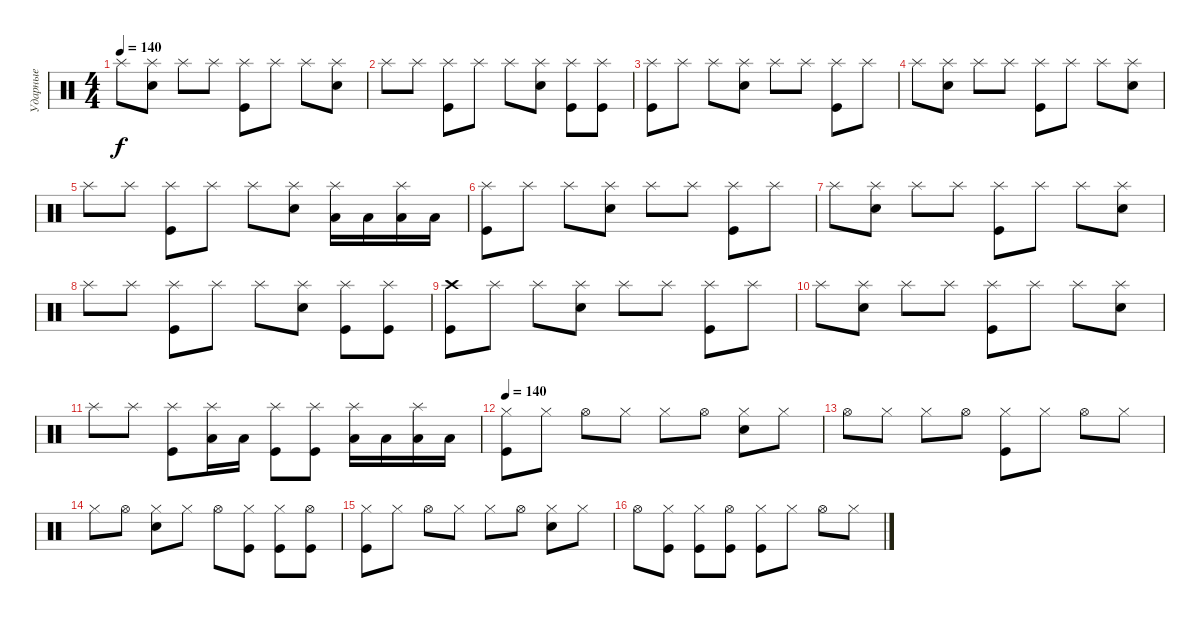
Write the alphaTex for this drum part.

\track ("Ударные" "Ударные") {instrument percussion}
\staff {score}
\articulation defaults
\ts (4 4)
\tempo 140
\clef neutral
\ks c "Splash (hit)".8{dy f}
("Snare (hit) 2" "Splash (hit)").8 "Splash (hit)".8 "Splash (hit)".8 ("Kick (hit)" "Splash (hit)").8 "Splash (hit)".8 "Splash (hit)".8 ("Snare (hit) 2" "Splash (hit)").8 |
"Splash (hit)".8 "Splash (hit)".8 ("Kick (hit)" "Splash (hit)").8 "Splash (hit)".8 "Splash (hit)".8 ("Snare (hit) 2" "Splash (hit)").8 ("Kick (hit)" "Splash (hit)").8 ("Kick (hit)" "Splash (hit)").8 |
("Kick (hit)" "Splash (hit)").8 "Splash (hit)".8 "Splash (hit)".8 ("Snare (hit) 2" "Splash (hit)").8 "Splash (hit)".8 "Splash (hit)".8 ("Kick (hit)" "Splash (hit)").8 "Splash (hit)".8 |
"Splash (hit)".8 ("Snare (hit) 2" "Splash (hit)").8 "Splash (hit)".8 "Splash (hit)".8 ("Kick (hit)" "Splash (hit)").8 "Splash (hit)".8 "Splash (hit)".8 ("Snare (hit) 2" "Splash (hit)").8 |
"Splash (hit)".8 "Splash (hit)".8 ("Kick (hit)" "Splash (hit)").8 "Splash (hit)".8 "Splash (hit)".8 ("Snare (hit) 2" "Splash (hit)").8 ("Low Tom (hit)" "Splash (hit)").16 "Low Tom (hit)".16 ("Low Tom (hit)" "Splash (hit)").16 "Low Tom (hit)".16 |
("Kick (hit)" "Splash (hit)").8 "Splash (hit)".8 "Splash (hit)".8 ("Snare (hit) 2" "Splash (hit)").8 "Splash (hit)".8 "Splash (hit)".8 ("Kick (hit)" "Splash (hit)").8 "Splash (hit)".8 |
"Splash (hit)".8 ("Snare (hit) 2" "Splash (hit)").8 "Splash (hit)".8 "Splash (hit)".8 ("Kick (hit)" "Splash (hit)").8 "Splash (hit)".8 "Splash (hit)".8 ("Snare (hit) 2" "Splash (hit)").8 |
"Splash (hit)".8 "Splash (hit)".8 ("Kick (hit)" "Splash (hit)").8 "Splash (hit)".8 "Splash (hit)".8 ("Snare (hit) 2" "Splash (hit)").8 ("Kick (hit)" "Splash (hit)").8 ("Kick (hit)" "Splash (hit)").8 |
("Kick (hit)" "Crash high (hit)").8 "Splash (hit)".8 "Splash (hit)".8 ("Snare (hit) 2" "Splash (hit)").8 "Splash (hit)".8 "Splash (hit)".8 ("Kick (hit)" "Splash (hit)").8 "Splash (hit)".8 |
"Splash (hit)".8 ("Snare (hit) 2" "Splash (hit)").8 "Splash (hit)".8 "Splash (hit)".8 ("Kick (hit)" "Splash (hit)").8 "Splash (hit)".8 "Splash (hit)".8 ("Snare (hit) 2" "Splash (hit)").8 |
"Splash (hit)".8 "Splash (hit)".8 ("Kick (hit)" "Splash (hit)").8 ("Low Tom (hit)" "Splash (hit)").16 "Low Tom (hit)".16 ("Kick (hit)" "Splash (hit)").8 ("Kick (hit)" "Splash (hit)").8 ("Low Tom (hit)" "Splash (hit)").16 "Low Tom (hit)".16 ("Low Tom (hit)" "Splash (hit)").16 "Low Tom (hit)".16 |
\tempo 140
("Kick (hit)" "Hi-Hat (closed)").8 "Hi-Hat (closed)".8 "Hi-Hat (open)".8 "Hi-Hat (closed)".8 "Hi-Hat (closed)".8 "Hi-Hat (open)".8 ("Snare (hit) 2" "Hi-Hat (closed)").8 "Hi-Hat (closed)".8 |
"Hi-Hat (open)".8 "Hi-Hat (closed)".8 "Hi-Hat (closed)".8 "Hi-Hat (open)".8 ("Kick (hit)" "Hi-Hat (closed)").8 "Hi-Hat (closed)".8 "Hi-Hat (open)".8 "Hi-Hat (closed)".8 |
"Hi-Hat (closed)".8 "Hi-Hat (open)".8 ("Snare (hit) 2" "Hi-Hat (closed)").8 "Hi-Hat (closed)".8 "Hi-Hat (open)".8 ("Kick (hit)" "Hi-Hat (closed)").8 ("Kick (hit)" "Hi-Hat (closed)").8 ("Kick (hit)" "Hi-Hat (open)").8 |
("Kick (hit)" "Hi-Hat (closed)").8 "Hi-Hat (closed)".8 "Hi-Hat (open)".8 "Hi-Hat (closed)".8 "Hi-Hat (closed)".8 "Hi-Hat (open)".8 ("Snare (hit) 2" "Hi-Hat (closed)").8 "Hi-Hat (closed)".8 |
"Hi-Hat (open)".8 ("Kick (hit)" "Hi-Hat (closed)").8 ("Kick (hit)" "Hi-Hat (closed)").8 ("Kick (hit)" "Hi-Hat (open)").8 ("Kick (hit)" "Hi-Hat (closed)").8 "Hi-Hat (closed)".8 "Hi-Hat (open)".8 "Hi-Hat (closed)".8
